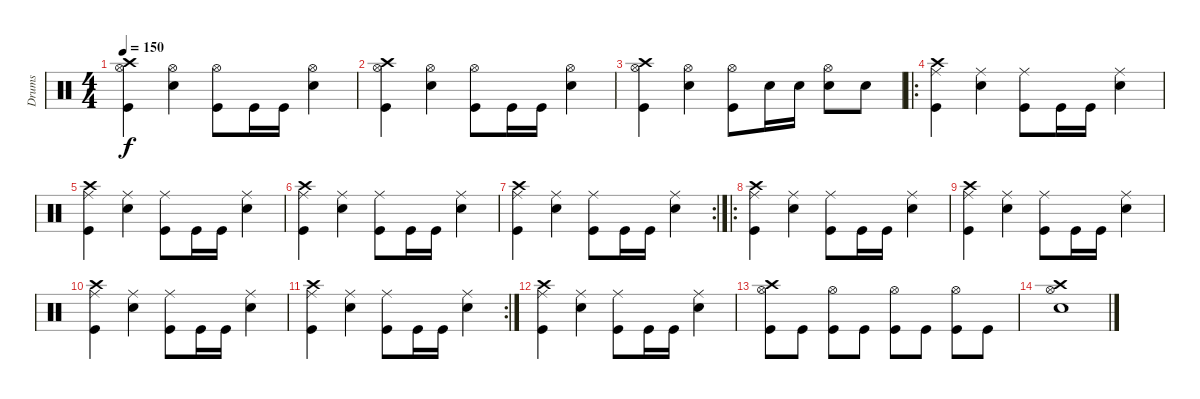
\track ("Drums" "Drums") {instrument percussion}
\staff {score}
\articulation defaults
\ts (4 4)
\tempo 150
\clef neutral
\ks c
("Hi-Hat (open)" "Crash high (hit)" "Kick (hit)").4{dy f} ("Hi-Hat (open)" "Electric Snare (hit)").4 ("Hi-Hat (open)" "Kick (hit)").8 "Kick (hit)".16 "Kick (hit)".16 ("Hi-Hat (open)" "Electric Snare (hit)").4 |
("Hi-Hat (open)" "Crash high (hit)" "Kick (hit)").4 ("Hi-Hat (open)" "Electric Snare (hit)").4 ("Hi-Hat (open)" "Kick (hit)").8 "Kick (hit)".16 "Kick (hit)".16 ("Hi-Hat (open)" "Electric Snare (hit)").4 |
("Hi-Hat (open)" "Crash high (hit)" "Kick (hit)").4 ("Hi-Hat (open)" "Electric Snare (hit)").4 ("Hi-Hat (open)" "Kick (hit)").8 "Electric Snare (hit)".16 "Electric Snare (hit)".16 ("Hi-Hat (open)" "Electric Snare (hit)").8 "Electric Snare (hit)".8 |
\ro
("Crash high (hit)" "Ride (middle)" "Kick (hit)").4 ("Ride (middle)" "Electric Snare (hit)").4 ("Ride (middle)" "Kick (hit)").8 "Kick (hit)".16 "Kick (hit)".16 ("Ride (middle)" "Electric Snare (hit)").4 |
("Crash high (hit)" "Ride (middle)" "Kick (hit)").4 ("Ride (middle)" "Electric Snare (hit)").4 ("Ride (middle)" "Kick (hit)").8 "Kick (hit)".16 "Kick (hit)".16 ("Ride (middle)" "Electric Snare (hit)").4 |
("Crash high (hit)" "Ride (middle)" "Kick (hit)").4 ("Ride (middle)" "Electric Snare (hit)").4 ("Ride (middle)" "Kick (hit)").8 "Kick (hit)".16 "Kick (hit)".16 ("Ride (middle)" "Electric Snare (hit)").4 |
\rc 2
("Crash high (hit)" "Ride (middle)" "Kick (hit)").4 ("Ride (middle)" "Electric Snare (hit)").4 ("Ride (middle)" "Kick (hit)").8 "Kick (hit)".16 "Kick (hit)".16 ("Ride (middle)" "Electric Snare (hit)").4 |
\ro
("Crash high (hit)" "Ride (middle)" "Kick (hit)").4 ("Ride (middle)" "Electric Snare (hit)").4 ("Ride (middle)" "Kick (hit)").8 "Kick (hit)".16 "Kick (hit)".16 ("Ride (middle)" "Electric Snare (hit)").4 |
("Crash high (hit)" "Ride (middle)" "Kick (hit)").4 ("Ride (middle)" "Electric Snare (hit)").4 ("Ride (middle)" "Kick (hit)").8 "Kick (hit)".16 "Kick (hit)".16 ("Ride (middle)" "Electric Snare (hit)").4 |
("Crash high (hit)" "Ride (middle)" "Kick (hit)").4 ("Ride (middle)" "Electric Snare (hit)").4 ("Ride (middle)" "Kick (hit)").8 "Kick (hit)".16 "Kick (hit)".16 ("Ride (middle)" "Electric Snare (hit)").4 |
\rc 2
("Crash high (hit)" "Ride (middle)" "Kick (hit)").4 ("Ride (middle)" "Electric Snare (hit)").4 ("Ride (middle)" "Kick (hit)").8 "Kick (hit)".16 "Kick (hit)".16 ("Ride (middle)" "Electric Snare (hit)").4 |
("Crash high (hit)" "Ride (middle)" "Kick (hit)").4 ("Ride (middle)" "Electric Snare (hit)").4 ("Ride (middle)" "Kick (hit)").8 "Kick (hit)".16 "Kick (hit)".16 ("Ride (middle)" "Electric Snare (hit)").4 |
("Hi-Hat (open)" "Crash high (hit)" "Kick (hit)").8 "Kick (hit)".8 ("Hi-Hat (open)" "Kick (hit)").8 "Kick (hit)".8 ("Hi-Hat (open)" "Kick (hit)").8 "Kick (hit)".8 ("Hi-Hat (open)" "Kick (hit)").8 "Kick (hit)".8 |
("Hi-Hat (open)" "Crash high (hit)" "Electric Snare (hit)").1
